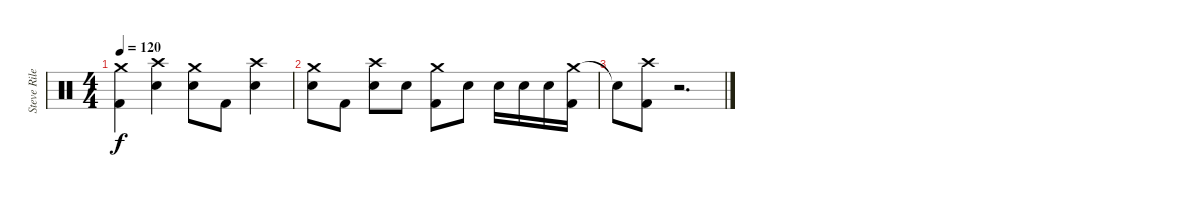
\track ("Steve Riley" "Steve Rile") {instrument percussion}
\staff {score}
\articulation defaults
\ts (4 4)
\tempo 120
\clef neutral
\ks c
("Crash medium (hit)" "Kick (hit) 2").4{dy f} ("Crash high (hit)" "Snare (hit) 2").4 ("Crash medium (hit)" "Snare (hit) 2").8 "Kick (hit) 2".8 ("Crash high (hit)" "Snare (hit) 2").4 |
("Crash medium (hit)" "Snare (hit) 2").8 "Kick (hit) 2".8 ("Crash high (hit)" "Snare (hit) 2").8 "Snare (hit) 2".8 ("Crash medium (hit)" "Kick (hit) 2").8 "Snare (hit) 2".8 "Snare (hit) 2".16 "Snare (hit) 2".16 "Snare (hit) 2".16 ("Crash medium (hit)" "Kick (hit) 2").16 |
"Snare (hit)"{t}.8 ("Crash high (hit)" "Kick (hit) 2").8 r.2{d}
